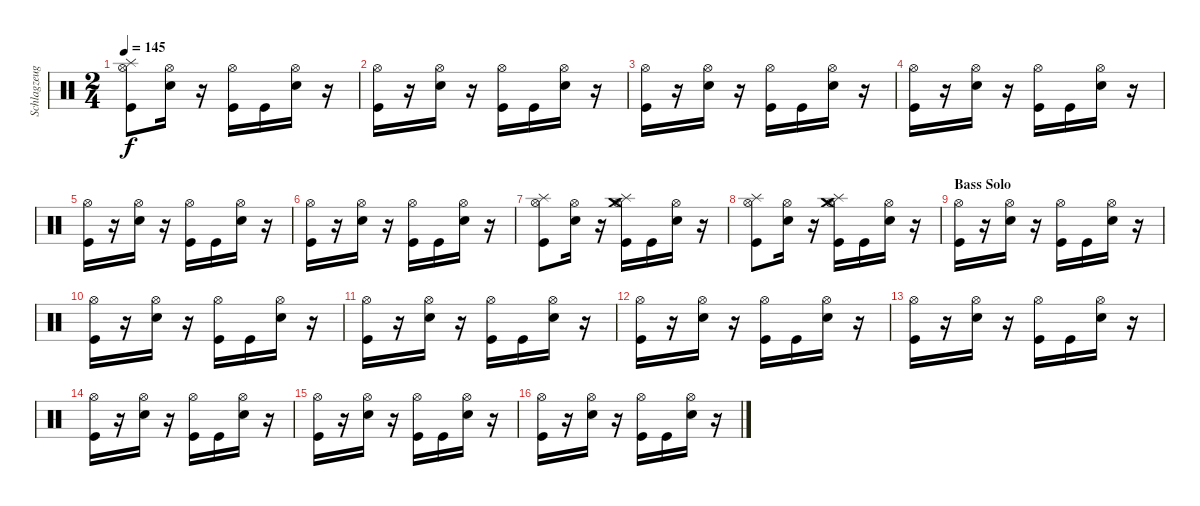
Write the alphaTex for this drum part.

\track ("Schlagzeug - Bela B." "Schlagzeug") {instrument percussion}
\staff {score}
\articulation defaults
\ts (2 4)
\tempo 145
\clef neutral
\ks c
("Kick (hit)" "Hi-Hat (open)" "Splash (hit)").8{dy f} ("Electric Snare (hit)" "Hi-Hat (open)").16 r.16 ("Kick (hit)" "Hi-Hat (open)").16 "Kick (hit)".16 ("Electric Snare (hit)" "Hi-Hat (open)").16 r.16 |
("Kick (hit)" "Hi-Hat (open)").16 r.16 ("Electric Snare (hit)" "Hi-Hat (open)").16 r.16 ("Kick (hit)" "Hi-Hat (open)").16 "Kick (hit)".16 ("Electric Snare (hit)" "Hi-Hat (open)").16 r.16 |
("Kick (hit)" "Hi-Hat (open)").16 r.16 ("Electric Snare (hit)" "Hi-Hat (open)").16 r.16 ("Kick (hit)" "Hi-Hat (open)").16 "Kick (hit)".16 ("Electric Snare (hit)" "Hi-Hat (open)").16 r.16 |
("Kick (hit)" "Hi-Hat (open)").16 r.16 ("Electric Snare (hit)" "Hi-Hat (open)").16 r.16 ("Kick (hit)" "Hi-Hat (open)").16 "Kick (hit)".16 ("Electric Snare (hit)" "Hi-Hat (open)").16 r.16 |
("Kick (hit)" "Hi-Hat (open)").16 r.16 ("Electric Snare (hit)" "Hi-Hat (open)").16 r.16 ("Kick (hit)" "Hi-Hat (open)").16 "Kick (hit)".16 ("Electric Snare (hit)" "Hi-Hat (open)").16 r.16 |
("Kick (hit)" "Hi-Hat (open)").16 r.16 ("Electric Snare (hit)" "Hi-Hat (open)").16 r.16 ("Kick (hit)" "Hi-Hat (open)").16 "Kick (hit)".16 ("Electric Snare (hit)" "Hi-Hat (open)").16 r.16 |
("Kick (hit)" "Hi-Hat (open)" "Splash (hit)").8 ("Electric Snare (hit)" "Hi-Hat (open)").16 r.16 ("Kick (hit)" "Hi-Hat (open)" "Splash (hit)" "Crash medium (hit)").16 "Kick (hit)".16 ("Electric Snare (hit)" "Hi-Hat (open)").16 r.16 |
("Kick (hit)" "Hi-Hat (open)" "Splash (hit)").8 ("Electric Snare (hit)" "Hi-Hat (open)").16 r.16 ("Kick (hit)" "Hi-Hat (open)" "Splash (hit)" "Crash medium (hit)").16 "Kick (hit)".16 ("Electric Snare (hit)" "Hi-Hat (open)").16 r.16 |
\section ("" "Bass Solo")
("Kick (hit)" "Hi-Hat (open)").16 r.16 ("Electric Snare (hit)" "Hi-Hat (open)").16 r.16 ("Kick (hit)" "Hi-Hat (open)").16 "Kick (hit)".16 ("Electric Snare (hit)" "Hi-Hat (open)").16 r.16 |
("Kick (hit)" "Hi-Hat (open)").16 r.16 ("Electric Snare (hit)" "Hi-Hat (open)").16 r.16 ("Kick (hit)" "Hi-Hat (open)").16 "Kick (hit)".16 ("Electric Snare (hit)" "Hi-Hat (open)").16 r.16 |
("Kick (hit)" "Hi-Hat (open)").16 r.16 ("Electric Snare (hit)" "Hi-Hat (open)").16 r.16 ("Kick (hit)" "Hi-Hat (open)").16 "Kick (hit)".16 ("Electric Snare (hit)" "Hi-Hat (open)").16 r.16 |
("Kick (hit)" "Hi-Hat (open)").16 r.16 ("Electric Snare (hit)" "Hi-Hat (open)").16 r.16 ("Kick (hit)" "Hi-Hat (open)").16 "Kick (hit)".16 ("Electric Snare (hit)" "Hi-Hat (open)").16 r.16 |
("Kick (hit)" "Hi-Hat (open)").16 r.16 ("Electric Snare (hit)" "Hi-Hat (open)").16 r.16 ("Kick (hit)" "Hi-Hat (open)").16 "Kick (hit)".16 ("Electric Snare (hit)" "Hi-Hat (open)").16 r.16 |
("Kick (hit)" "Hi-Hat (open)").16 r.16 ("Electric Snare (hit)" "Hi-Hat (open)").16 r.16 ("Kick (hit)" "Hi-Hat (open)").16 "Kick (hit)".16 ("Electric Snare (hit)" "Hi-Hat (open)").16 r.16 |
("Kick (hit)" "Hi-Hat (open)").16 r.16 ("Electric Snare (hit)" "Hi-Hat (open)").16 r.16 ("Kick (hit)" "Hi-Hat (open)").16 "Kick (hit)".16 ("Electric Snare (hit)" "Hi-Hat (open)").16 r.16 |
("Kick (hit)" "Hi-Hat (open)").16 r.16 ("Electric Snare (hit)" "Hi-Hat (open)").16 r.16 ("Kick (hit)" "Hi-Hat (open)").16 "Kick (hit)".16 ("Electric Snare (hit)" "Hi-Hat (open)").16 r.16
